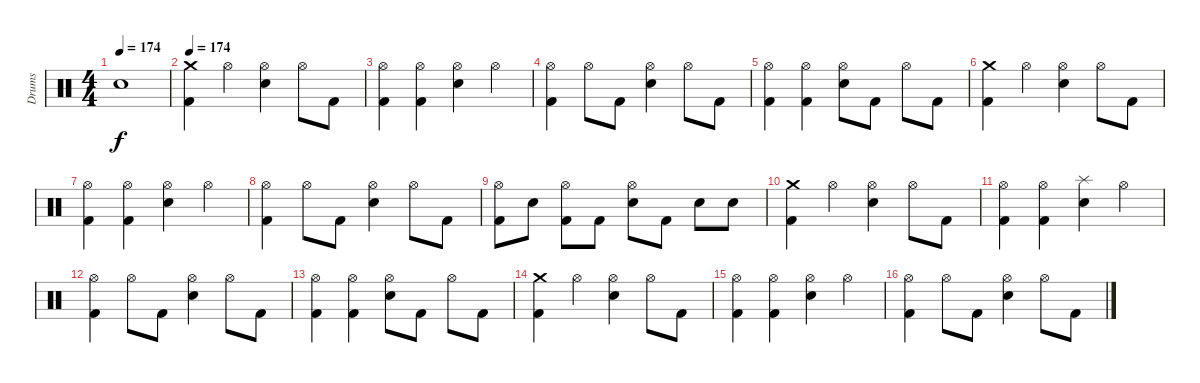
\track ("Drums" "Drums") {instrument percussion}
\staff {score}
\articulation defaults
\ts (4 4)
\tempo 174
\clef neutral
\ks c "Snare (hit)"{t}.1{dy f}
|
\tempo 174
("Crash medium (hit)" "Kick (hit) 2").4 "Hi-Hat (open)".4 ("Hi-Hat (open)" "Snare (hit) 2").4 "Hi-Hat (open)".8 "Kick (hit) 2".8 |
("Hi-Hat (open)" "Kick (hit) 2").4 ("Hi-Hat (open)" "Kick (hit) 2").4 ("Hi-Hat (open)" "Snare (hit) 2").4 "Hi-Hat (open)".4 |
("Hi-Hat (open)" "Kick (hit) 2").4 "Hi-Hat (open)".8 "Kick (hit) 2".8 ("Hi-Hat (open)" "Snare (hit) 2").4 "Hi-Hat (open)".8 "Kick (hit) 2".8 |
("Hi-Hat (open)" "Kick (hit) 2").4 ("Hi-Hat (open)" "Kick (hit) 2").4 ("Hi-Hat (open)" "Snare (hit) 2").8 "Kick (hit) 2".8 "Hi-Hat (open)".8 "Kick (hit) 2".8 |
("Crash medium (hit)" "Kick (hit) 2").4 "Hi-Hat (open)".4 ("Hi-Hat (open)" "Snare (hit) 2").4 "Hi-Hat (open)".8 "Kick (hit) 2".8 |
("Hi-Hat (open)" "Kick (hit) 2").4 ("Hi-Hat (open)" "Kick (hit) 2").4 ("Hi-Hat (open)" "Snare (hit) 2").4 "Hi-Hat (open)".4 |
("Hi-Hat (open)" "Kick (hit) 2").4 "Hi-Hat (open)".8 "Kick (hit) 2".8 ("Hi-Hat (open)" "Snare (hit) 2").4 "Hi-Hat (open)".8 "Kick (hit) 2".8 |
("Hi-Hat (open)" "Kick (hit) 2").8 "Snare (hit) 2".8 ("Hi-Hat (open)" "Kick (hit) 2").8 "Kick (hit) 2".8 ("Hi-Hat (open)" "Snare (hit) 2").8 "Kick (hit) 2".8 "Snare (hit) 2".8 "Snare (hit) 2".8 |
("Crash medium (hit)" "Kick (hit) 2").4 "Hi-Hat (open)".4 ("Hi-Hat (open)" "Snare (hit) 2").4 "Hi-Hat (open)".8 "Kick (hit) 2".8 |
("Hi-Hat (open)" "Kick (hit) 2").4 ("Hi-Hat (open)" "Kick (hit) 2").4 ("Splash (hit)" "Snare (hit) 2").4 "Hi-Hat (open)".4 |
("Hi-Hat (open)" "Kick (hit) 2").4 "Hi-Hat (open)".8 "Kick (hit) 2".8 ("Hi-Hat (open)" "Snare (hit) 2").4 "Hi-Hat (open)".8 "Kick (hit) 2".8 |
("Hi-Hat (open)" "Kick (hit) 2").4 ("Hi-Hat (open)" "Kick (hit) 2").4 ("Hi-Hat (open)" "Snare (hit) 2").8 "Kick (hit) 2".8 "Hi-Hat (open)".8 "Kick (hit) 2".8 |
("Crash medium (hit)" "Kick (hit) 2").4 "Hi-Hat (open)".4 ("Hi-Hat (open)" "Snare (hit) 2").4 "Hi-Hat (open)".8 "Kick (hit) 2".8 |
("Hi-Hat (open)" "Kick (hit) 2").4 ("Hi-Hat (open)" "Kick (hit) 2").4 ("Hi-Hat (open)" "Snare (hit) 2").4 "Hi-Hat (open)".4 |
("Hi-Hat (open)" "Kick (hit) 2").4 "Hi-Hat (open)".8 "Kick (hit) 2".8 ("Hi-Hat (open)" "Snare (hit) 2").4 "Hi-Hat (open)".8 "Kick (hit) 2".8
